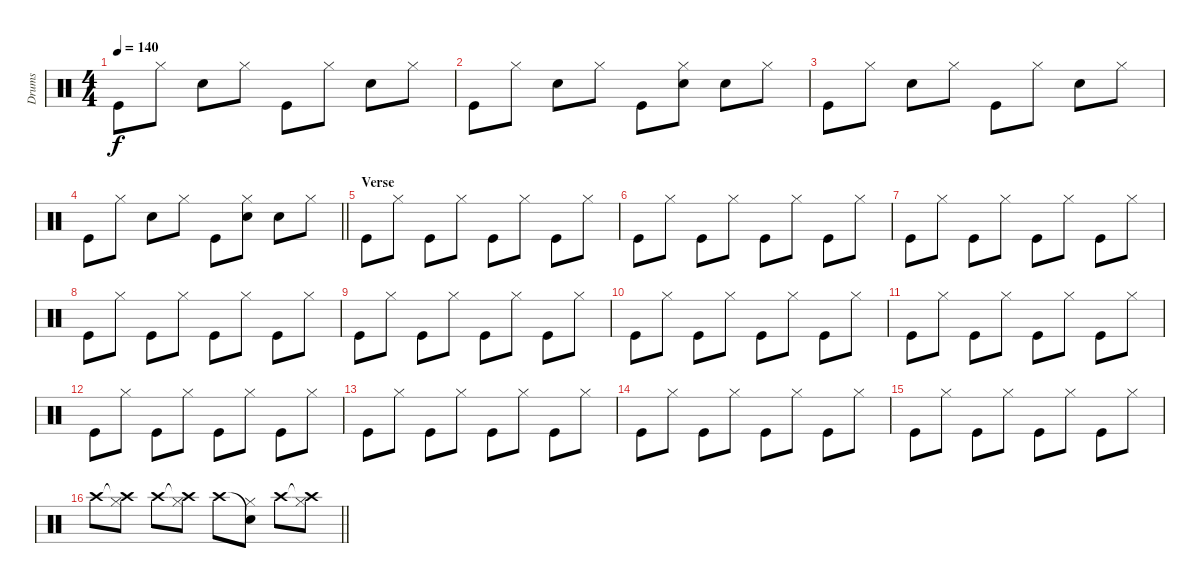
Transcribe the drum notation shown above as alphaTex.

\track ("Drums" "Drums") {instrument percussion}
\staff {score}
\articulation defaults
\ts (4 4)
\tempo 140
\clef neutral
\ks c "Kick (hit)".8{dy f} "Hi-Hat (closed)".8 "Hand Clap (hit)".8 "Hi-Hat (closed)".8 "Kick (hit)".8 "Hi-Hat (closed)".8 "Hand Clap (hit)".8 "Hi-Hat (closed)".8
|
"Kick (hit)".8 "Hi-Hat (closed)".8 "Hand Clap (hit)".8 "Hi-Hat (closed)".8 "Kick (hit)".8 ("Hi-Hat (closed)" "Hand Clap (hit)").8 "Hand Clap (hit)".8 "Hi-Hat (closed)".8 |
"Kick (hit)".8 "Hi-Hat (closed)".8 "Hand Clap (hit)".8 "Hi-Hat (closed)".8 "Kick (hit)".8 "Hi-Hat (closed)".8 "Hand Clap (hit)".8 "Hi-Hat (closed)".8 |
\barLineRight lightlight "Kick (hit)".8 "Hi-Hat (closed)".8 "Hand Clap (hit)".8 "Hi-Hat (closed)".8 "Kick (hit)".8
("Hi-Hat (closed)" "Hand Clap (hit)").8 "Hand Clap (hit)".8 "Hi-Hat (closed)".8 |
\section ("" "Verse")
"Kick (hit)".8 "Hi-Hat (closed)".8 "Kick (hit)".8 "Hi-Hat (closed)".8 "Kick (hit)".8 "Hi-Hat (closed)".8 "Kick (hit)".8 "Hi-Hat (closed)".8 |
"Kick (hit)".8 "Hi-Hat (closed)".8 "Kick (hit)".8 "Hi-Hat (closed)".8 "Kick (hit)".8 "Hi-Hat (closed)".8 "Kick (hit)".8 "Hi-Hat (closed)".8 |
"Kick (hit)".8 "Hi-Hat (closed)".8 "Kick (hit)".8 "Hi-Hat (closed)".8 "Kick (hit)".8 "Hi-Hat (closed)".8 "Kick (hit)".8 "Hi-Hat (closed)".8 |
"Kick (hit)".8 "Hi-Hat (closed)".8 "Kick (hit)".8 "Hi-Hat (closed)".8 "Kick (hit)".8 "Hi-Hat (closed)".8 "Kick (hit)".8 "Hi-Hat (closed)".8 |
"Kick (hit)".8 "Hi-Hat (closed)".8 "Kick (hit)".8 "Hi-Hat (closed)".8 "Kick (hit)".8 "Hi-Hat (closed)".8 "Kick (hit)".8 "Hi-Hat (closed)".8 |
"Kick (hit)".8 "Hi-Hat (closed)".8 "Kick (hit)".8 "Hi-Hat (closed)".8 "Kick (hit)".8 "Hi-Hat (closed)".8 "Kick (hit)".8 "Hi-Hat (closed)".8 |
"Kick (hit)".8 "Hi-Hat (closed)".8 "Kick (hit)".8 "Hi-Hat (closed)".8 "Kick (hit)".8 "Hi-Hat (closed)".8 "Kick (hit)".8 "Hi-Hat (closed)".8 |
"Kick (hit)".8 "Hi-Hat (closed)".8 "Kick (hit)".8 "Hi-Hat (closed)".8 "Kick (hit)".8 "Hi-Hat (closed)".8 "Kick (hit)".8 "Hi-Hat (closed)".8 |
"Kick (hit)".8 "Hi-Hat (closed)".8 "Kick (hit)".8 "Hi-Hat (closed)".8 "Kick (hit)".8 "Hi-Hat (closed)".8 "Kick (hit)".8 "Hi-Hat (closed)".8 |
"Kick (hit)".8 "Hi-Hat (closed)".8 "Kick (hit)".8 "Hi-Hat (closed)".8 "Kick (hit)".8 "Hi-Hat (closed)".8 "Kick (hit)".8 "Hi-Hat (closed)".8 |
"Kick (hit)".8 "Hi-Hat (closed)".8 "Kick (hit)".8 "Hi-Hat (closed)".8 "Kick (hit)".8 "Hi-Hat (closed)".8 "Kick (hit)".8 "Hi-Hat (closed)".8 |
\barLineRight lightlight "Crash high (hit)".8
("Crash high (hit)"{t} "Hi-Hat (closed)").8 "Crash high (hit)".8 ("Crash high (hit)"{t} "Hi-Hat (closed)").8 "Crash high (hit)".8 ("Snare (hit)"{t} "Hi-Hat (closed)").8 "Crash high (hit)".8 ("Crash high (hit)"{t} "Hi-Hat (closed)").8
